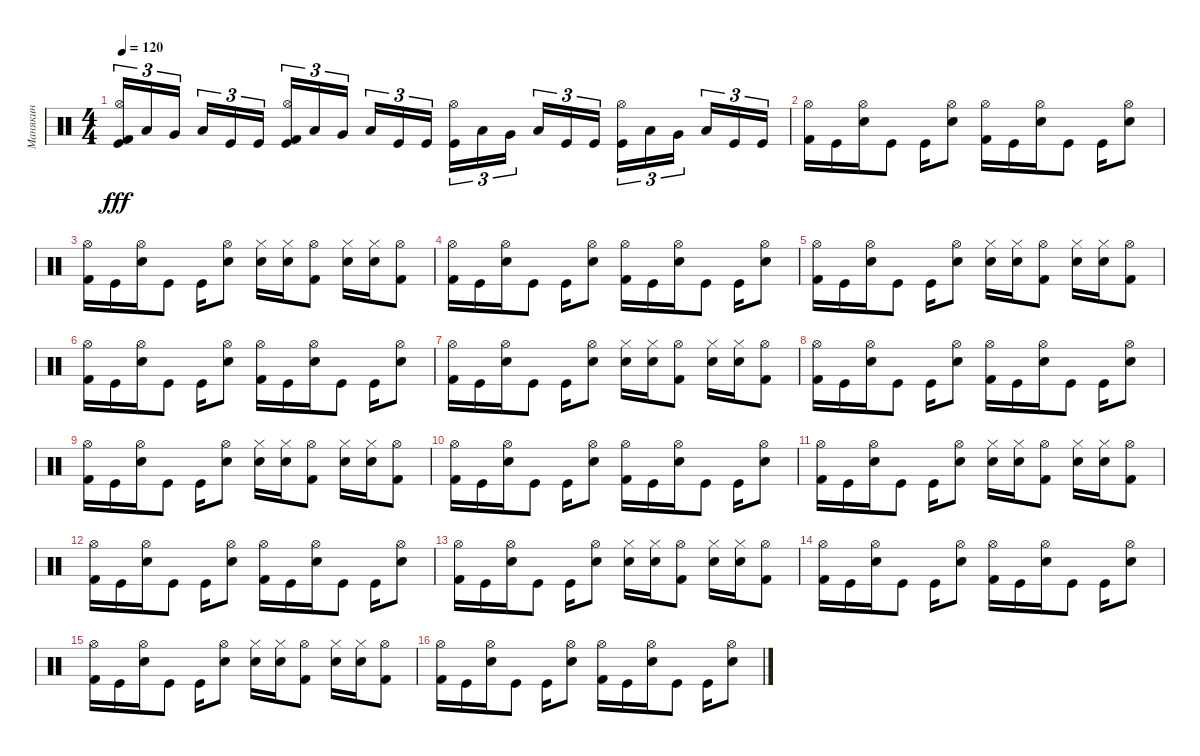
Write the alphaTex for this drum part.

\track ("Манякин" "Манякин") {instrument percussion}
\staff {score}
\articulation defaults
\ts (4 4)
\tempo 120
\clef neutral
\ks c
("Kick (hit) 2" "Hi-Hat (open)" "Kick (hit)").16{tu (3 2) dy fff} "Low Tom (hit)".16{tu (3 2)} "Very Low Tom (hit)".16{tu (3 2)} "Low Floor Tom (hit)".16{tu (3 2)} "Kick (hit)".16{tu (3 2)} "Kick (hit)".16{tu (3 2)} ("Kick (hit) 2" "Hi-Hat (open)" "Kick (hit)").16{tu (3 2)} "Low Tom (hit)".16{tu (3 2)} "Very Low Tom (hit)".16{tu (3 2)} "Low Floor Tom (hit)".16{tu (3 2)} "Kick (hit)".16{tu (3 2)} "Kick (hit)".16{tu (3 2)} ("Hi-Hat (open)" "Kick (hit)").16{tu (3 2)} "Low Tom (hit)".16{tu (3 2)} "Very Low Tom (hit)".16{tu (3 2)} "Low Floor Tom (hit)".16{tu (3 2)} "Kick (hit)".16{tu (3 2)} "Kick (hit)".16{tu (3 2)} ("Hi-Hat (open)" "Kick (hit)").16{tu (3 2)} "Low Tom (hit)".16{tu (3 2)} "Very Low Tom (hit)".16{tu (3 2)} "Low Floor Tom (hit)".16{tu (3 2)} "Kick (hit)".16{tu (3 2)} "Kick (hit)".16{tu (3 2)} |
("Hi-Hat (open)" "Kick (hit) 2").16 "Kick (hit)".16 ("Hi-Hat (open)" "Snare (hit) 2").16 "Kick (hit)".8 "Kick (hit)".16 ("Hi-Hat (open)" "Snare (hit) 2").8 ("Kick (hit) 2" "Hi-Hat (open)").16 "Kick (hit)".16 ("Hi-Hat (open)" "Snare (hit) 2").16 "Kick (hit)".8 "Kick (hit)".16 ("Hi-Hat (open)" "Snare (hit) 2").8 |
("Hi-Hat (open)" "Kick (hit) 2").16 "Kick (hit)".16 ("Hi-Hat (open)" "Snare (hit) 2").16 "Kick (hit)".8 "Kick (hit)".16 ("Hi-Hat (open)" "Snare (hit) 2").8 ("Hi-Hat (closed)" "Snare (hit) 2").16 ("Hi-Hat (closed)" "Snare (hit) 2").16 ("Hi-Hat (open)" "Kick (hit) 2").8 ("Hi-Hat (closed)" "Snare (hit) 2").16 ("Hi-Hat (closed)" "Snare (hit) 2").16 ("Hi-Hat (open)" "Kick (hit) 2").8 |
("Hi-Hat (open)" "Kick (hit) 2").16 "Kick (hit)".16 ("Hi-Hat (open)" "Snare (hit) 2").16 "Kick (hit)".8 "Kick (hit)".16 ("Hi-Hat (open)" "Snare (hit) 2").8 ("Kick (hit) 2" "Hi-Hat (open)").16 "Kick (hit)".16 ("Hi-Hat (open)" "Snare (hit) 2").16 "Kick (hit)".8 "Kick (hit)".16 ("Hi-Hat (open)" "Snare (hit) 2").8 |
("Hi-Hat (open)" "Kick (hit) 2").16 "Kick (hit)".16 ("Hi-Hat (open)" "Snare (hit) 2").16 "Kick (hit)".8 "Kick (hit)".16 ("Hi-Hat (open)" "Snare (hit) 2").8 ("Hi-Hat (closed)" "Snare (hit) 2").16 ("Hi-Hat (closed)" "Snare (hit) 2").16 ("Hi-Hat (open)" "Kick (hit) 2").8 ("Hi-Hat (closed)" "Snare (hit) 2").16 ("Hi-Hat (closed)" "Snare (hit) 2").16 ("Hi-Hat (open)" "Kick (hit) 2").8 |
("Hi-Hat (open)" "Kick (hit) 2").16 "Kick (hit)".16 ("Hi-Hat (open)" "Snare (hit) 2").16 "Kick (hit)".8 "Kick (hit)".16 ("Hi-Hat (open)" "Snare (hit) 2").8 ("Kick (hit) 2" "Hi-Hat (open)").16 "Kick (hit)".16 ("Hi-Hat (open)" "Snare (hit) 2").16 "Kick (hit)".8 "Kick (hit)".16 ("Hi-Hat (open)" "Snare (hit) 2").8 |
("Hi-Hat (open)" "Kick (hit) 2").16 "Kick (hit)".16 ("Hi-Hat (open)" "Snare (hit) 2").16 "Kick (hit)".8 "Kick (hit)".16 ("Hi-Hat (open)" "Snare (hit) 2").8 ("Hi-Hat (closed)" "Snare (hit) 2").16 ("Hi-Hat (closed)" "Snare (hit) 2").16 ("Hi-Hat (open)" "Kick (hit) 2").8 ("Hi-Hat (closed)" "Snare (hit) 2").16 ("Hi-Hat (closed)" "Snare (hit) 2").16 ("Hi-Hat (open)" "Kick (hit) 2").8 |
("Hi-Hat (open)" "Kick (hit) 2").16 "Kick (hit)".16 ("Hi-Hat (open)" "Snare (hit) 2").16 "Kick (hit)".8 "Kick (hit)".16 ("Hi-Hat (open)" "Snare (hit) 2").8 ("Kick (hit) 2" "Hi-Hat (open)").16 "Kick (hit)".16 ("Hi-Hat (open)" "Snare (hit) 2").16 "Kick (hit)".8 "Kick (hit)".16 ("Hi-Hat (open)" "Snare (hit) 2").8 |
("Hi-Hat (open)" "Kick (hit) 2").16 "Kick (hit)".16 ("Hi-Hat (open)" "Snare (hit) 2").16 "Kick (hit)".8 "Kick (hit)".16 ("Hi-Hat (open)" "Snare (hit) 2").8 ("Hi-Hat (closed)" "Snare (hit) 2").16 ("Hi-Hat (closed)" "Snare (hit) 2").16 ("Hi-Hat (open)" "Kick (hit) 2").8 ("Hi-Hat (closed)" "Snare (hit) 2").16 ("Hi-Hat (closed)" "Snare (hit) 2").16 ("Hi-Hat (open)" "Kick (hit) 2").8 |
("Hi-Hat (open)" "Kick (hit) 2").16 "Kick (hit)".16 ("Hi-Hat (open)" "Snare (hit) 2").16 "Kick (hit)".8 "Kick (hit)".16 ("Hi-Hat (open)" "Snare (hit) 2").8 ("Kick (hit) 2" "Hi-Hat (open)").16 "Kick (hit)".16 ("Hi-Hat (open)" "Snare (hit) 2").16 "Kick (hit)".8 "Kick (hit)".16 ("Hi-Hat (open)" "Snare (hit) 2").8 |
("Hi-Hat (open)" "Kick (hit) 2").16 "Kick (hit)".16 ("Hi-Hat (open)" "Snare (hit) 2").16 "Kick (hit)".8 "Kick (hit)".16 ("Hi-Hat (open)" "Snare (hit) 2").8 ("Hi-Hat (closed)" "Snare (hit) 2").16 ("Hi-Hat (closed)" "Snare (hit) 2").16 ("Hi-Hat (open)" "Kick (hit) 2").8 ("Hi-Hat (closed)" "Snare (hit) 2").16 ("Hi-Hat (closed)" "Snare (hit) 2").16 ("Hi-Hat (open)" "Kick (hit) 2").8 |
("Hi-Hat (open)" "Kick (hit) 2").16 "Kick (hit)".16 ("Hi-Hat (open)" "Snare (hit) 2").16 "Kick (hit)".8 "Kick (hit)".16 ("Hi-Hat (open)" "Snare (hit) 2").8 ("Kick (hit) 2" "Hi-Hat (open)").16 "Kick (hit)".16 ("Hi-Hat (open)" "Snare (hit) 2").16 "Kick (hit)".8 "Kick (hit)".16 ("Hi-Hat (open)" "Snare (hit) 2").8 |
("Hi-Hat (open)" "Kick (hit) 2").16 "Kick (hit)".16 ("Hi-Hat (open)" "Snare (hit) 2").16 "Kick (hit)".8 "Kick (hit)".16 ("Hi-Hat (open)" "Snare (hit) 2").8 ("Hi-Hat (closed)" "Snare (hit) 2").16 ("Hi-Hat (closed)" "Snare (hit) 2").16 ("Hi-Hat (open)" "Kick (hit) 2").8 ("Hi-Hat (closed)" "Snare (hit) 2").16 ("Hi-Hat (closed)" "Snare (hit) 2").16 ("Hi-Hat (open)" "Kick (hit) 2").8 |
("Hi-Hat (open)" "Kick (hit) 2").16 "Kick (hit)".16 ("Hi-Hat (open)" "Snare (hit) 2").16 "Kick (hit)".8 "Kick (hit)".16 ("Hi-Hat (open)" "Snare (hit) 2").8 ("Kick (hit) 2" "Hi-Hat (open)").16 "Kick (hit)".16 ("Hi-Hat (open)" "Snare (hit) 2").16 "Kick (hit)".8 "Kick (hit)".16 ("Hi-Hat (open)" "Snare (hit) 2").8 |
("Hi-Hat (open)" "Kick (hit) 2").16 "Kick (hit)".16 ("Hi-Hat (open)" "Snare (hit) 2").16 "Kick (hit)".8 "Kick (hit)".16 ("Hi-Hat (open)" "Snare (hit) 2").8 ("Hi-Hat (closed)" "Snare (hit) 2").16 ("Hi-Hat (closed)" "Snare (hit) 2").16 ("Hi-Hat (open)" "Kick (hit) 2").8 ("Hi-Hat (closed)" "Snare (hit) 2").16 ("Hi-Hat (closed)" "Snare (hit) 2").16 ("Hi-Hat (open)" "Kick (hit) 2").8 |
("Hi-Hat (open)" "Kick (hit) 2").16 "Kick (hit)".16 ("Hi-Hat (open)" "Snare (hit) 2").16 "Kick (hit)".8 "Kick (hit)".16 ("Hi-Hat (open)" "Snare (hit) 2").8 ("Kick (hit) 2" "Hi-Hat (open)").16 "Kick (hit)".16 ("Hi-Hat (open)" "Snare (hit) 2").16 "Kick (hit)".8 "Kick (hit)".16 ("Hi-Hat (open)" "Snare (hit) 2").8
